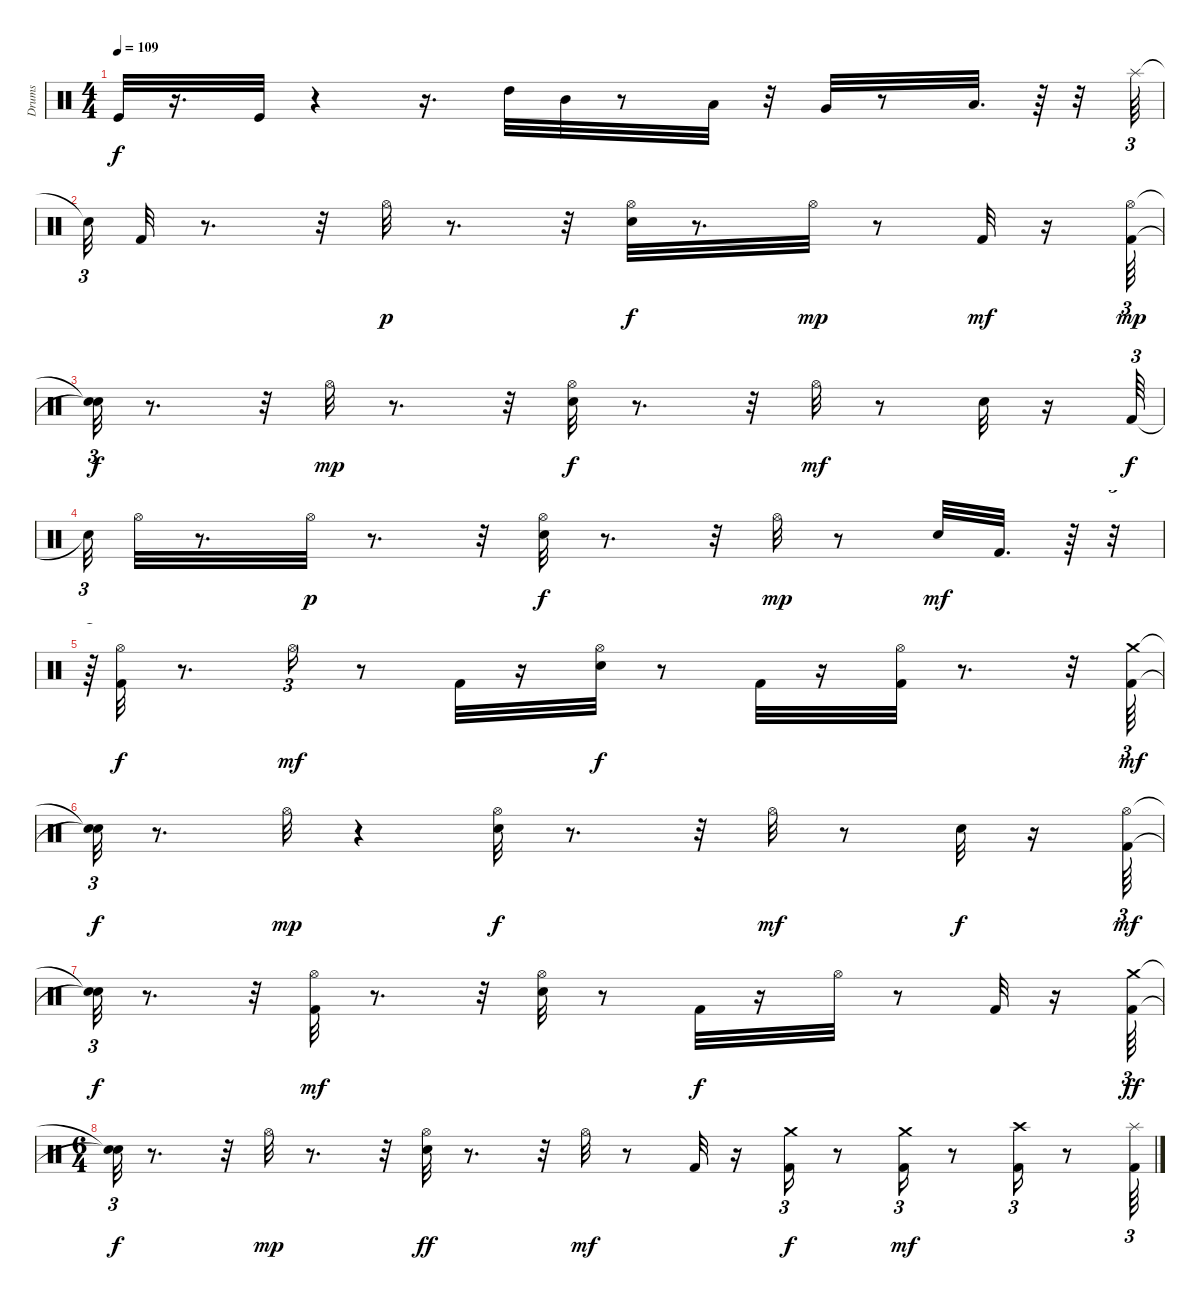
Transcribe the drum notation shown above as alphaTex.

\track ("Drums" "Drums") {solo instrument percussion}
\staff {score}
\articulation defaults
\ts (4 4)
\tempo 109
\clef neutral
\ks c "Kick (hit)".32{dy f}
r.16{d} "Kick (hit)".32 r.4 r.16{d} "High Tom (hit)".32 "Mid Tom (hit)".32 r.8 "Low Tom (hit)".32 r.32 "Very Low Tom (hit)".32 r.8 "Low Floor Tom (hit)".32{d} r.64 r.32 "Splash (hit)".64{tu (3 2)} |
"Snare (hit)"{t}.32{tu (3 2)} "Kick (hit) 2".32 r.8{d} r.32 "Hi-Hat (open)".32{dy p} r.8{d} r.32 ("Electric Snare (hit)" "Hi-Hat (open)").32{dy f} r.8{d} "Hi-Hat (open)".32{dy mp} r.8 "Kick (hit) 2".32{dy mf} r.16 ("Hi-Hat (open)" "Kick (hit) 2").64{tu (3 2) dy mp} |
("Snare (hit)"{t} "Snare (hit)"{t}).32{tu (3 2) dy f} r.8{d} r.32 "Hi-Hat (open)".32{dy mp} r.8{d} r.32 ("Electric Snare (hit)" "Hi-Hat (open)").32{dy f} r.8{d} r.32 "Hi-Hat (open)".32{dy mf} r.8 "Electric Snare (hit)".32 r.16 "Kick (hit) 2".64{tu (3 2) dy f} |
"Snare (hit)"{t}.32{tu (3 2)} "Hi-Hat (open)".32 r.8{d} "Hi-Hat (open)".32{dy p} r.8{d} r.32 ("Electric Snare (hit)" "Hi-Hat (open)").32{dy f} r.8{d} r.32 "Hi-Hat (open)".32{dy mp} r.8 "Electric Snare (hit)".32{dy mf} "Kick (hit) 2".32{d} r.64 r.32{tu (3 2)} |
r.64{tu (3 2)} ("Hi-Hat (open)" "Kick (hit) 2").32{dy f} r.8{d} "Hi-Hat (open)".16{tu (3 2) dy mf} r.8 "Kick (hit) 2".32 r.16 ("Electric Snare (hit)" "Hi-Hat (open)").32{dy f} r.8 "Kick (hit) 2".32 r.16 ("Hi-Hat (open)" "Kick (hit) 2").32 r.8{d} r.32 ("Crash medium (hit)" "Kick (hit) 2").64{tu (3 2) dy mf} |
("Snare (hit)"{t} "Snare (hit)"{t}).32{tu (3 2) dy f} r.8{d} "Hi-Hat (open)".32{dy mp} r.4 ("Electric Snare (hit)" "Hi-Hat (open)").32{dy f} r.8{d} r.32 "Hi-Hat (open)".32{dy mf} r.8 "Electric Snare (hit)".32{dy f} r.16 ("Hi-Hat (open)" "Kick (hit) 2").64{tu (3 2) dy mf} |
("Snare (hit)"{t} "Snare (hit)"{t}).32{tu (3 2) dy f} r.8{d} r.32 ("Kick (hit) 2" "Hi-Hat (open)").32{dy mf} r.8{d} r.32 ("Electric Snare (hit)" "Hi-Hat (open)").32 r.8 "Kick (hit) 2".32{dy f} r.16 "Hi-Hat (open)".32 r.8 "Kick (hit) 2".32 r.16 ("Crash medium (hit)" "Kick (hit) 2").64{tu (3 2) dy ff} |
\ts (6 4)
("Snare (hit)"{t} "Snare (hit)"{t}).32{tu (3 2) dy f} r.8{d} r.32 "Hi-Hat (open)".32{dy mp} r.8{d} r.32 ("Electric Snare (hit)" "Hi-Hat (open)").32{dy ff} r.8{d} r.32 "Hi-Hat (open)".32{dy mf} r.8 "Kick (hit) 2".32 r.16 ("Crash medium (hit)" "Kick (hit) 2").16{tu (3 2) dy f} r.8 ("Kick (hit) 2" "Crash medium (hit)").16{tu (3 2) dy mf} r.8 ("Kick (hit) 2" "Crash high (hit)").16{tu (3 2)} r.8 ("Splash (hit)" "Kick (hit) 2").64{tu (3 2)}
